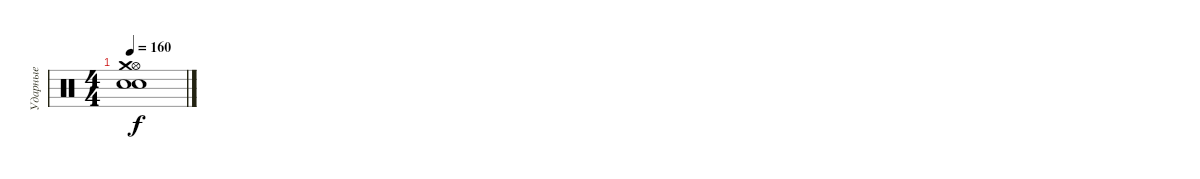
\track ("Ударные" "Ударные") {instrument percussion}
\staff {score}
\articulation defaults
\ts (4 4)
\tempo 160
\clef neutral
\ks c
("Hi-Hat (open)" "Crash medium (hit)" "Snare (hit) 2" "Snare (hit) 2").1{dy f}
